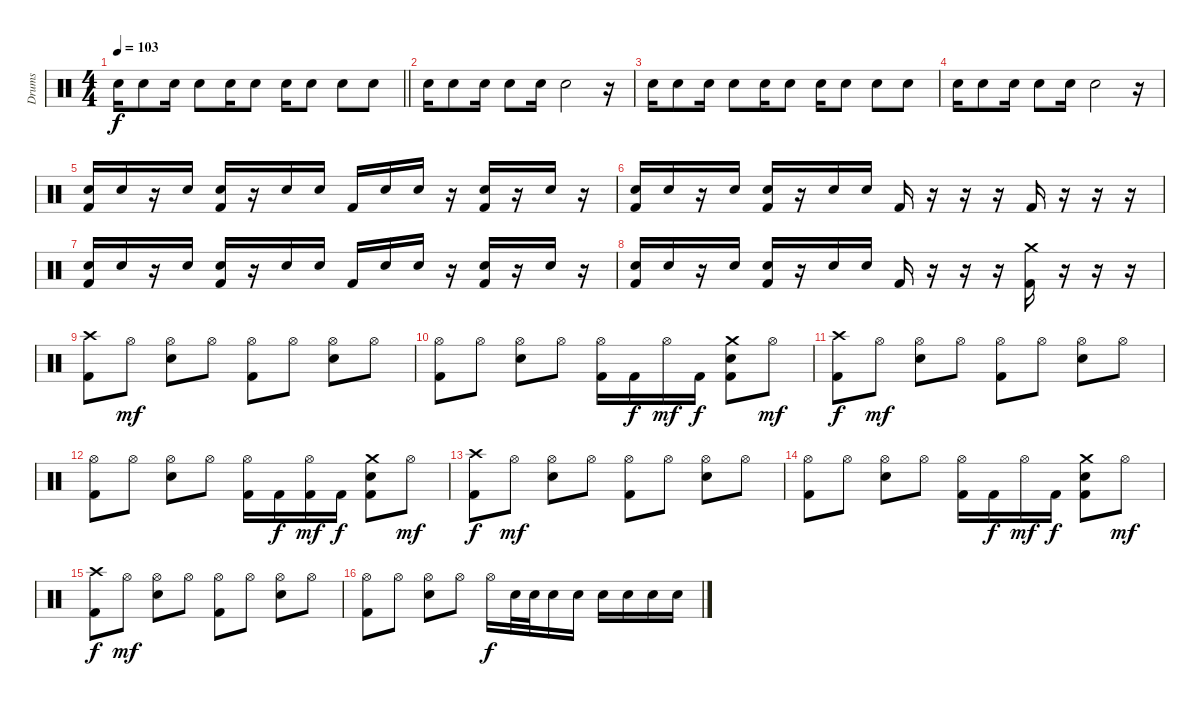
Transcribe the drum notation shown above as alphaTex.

\track ("Drums" "Drums") {instrument percussion}
\staff {score}
\articulation defaults
\ts (4 4)
\tempo 103
\clef neutral
\barLineRight lightlight
\ks c "Electric Snare (hit)".16{dy f} "Electric Snare (hit)".8 "Electric Snare (hit)".16 "Electric Snare (hit)".8 "Electric Snare (hit)".16 "Electric Snare (hit)".8 "Electric Snare (hit)".16 "Electric Snare (hit)".8 "Electric Snare (hit)".8 "Electric Snare (hit)".8
|
"Electric Snare (hit)".16 "Electric Snare (hit)".8 "Electric Snare (hit)".16 "Electric Snare (hit)".8 "Electric Snare (hit)".16 "Electric Snare (hit)".2 r.16 |
"Electric Snare (hit)".16 "Electric Snare (hit)".8 "Electric Snare (hit)".16 "Electric Snare (hit)".8 "Electric Snare (hit)".16 "Electric Snare (hit)".8 "Electric Snare (hit)".16 "Electric Snare (hit)".8 "Electric Snare (hit)".8 "Electric Snare (hit)".8 |
"Electric Snare (hit)".16 "Electric Snare (hit)".8 "Electric Snare (hit)".16 "Electric Snare (hit)".8 "Electric Snare (hit)".16 "Electric Snare (hit)".2 r.16 |
("Electric Snare (hit)" "Kick (hit) 2").16 "Electric Snare (hit)".16 r.16 "Electric Snare (hit)".16 ("Electric Snare (hit)" "Kick (hit) 2").16 r.16 "Electric Snare (hit)".16 "Electric Snare (hit)".16 "Kick (hit) 2".16 "Electric Snare (hit)".16 "Electric Snare (hit)".16 r.16 ("Electric Snare (hit)" "Kick (hit) 2").16 r.16 "Electric Snare (hit)".16 r.16 |
("Electric Snare (hit)" "Kick (hit) 2").16 "Electric Snare (hit)".16 r.16 "Electric Snare (hit)".16 ("Electric Snare (hit)" "Kick (hit) 2").16 r.16 "Electric Snare (hit)".16 "Electric Snare (hit)".16 "Kick (hit) 2".16 r.16 r.16 r.16 "Kick (hit) 2".16 r.16 r.16 r.16 |
("Electric Snare (hit)" "Kick (hit) 2").16 "Electric Snare (hit)".16 r.16 "Electric Snare (hit)".16 ("Electric Snare (hit)" "Kick (hit) 2").16 r.16 "Electric Snare (hit)".16 "Electric Snare (hit)".16 "Kick (hit) 2".16 "Electric Snare (hit)".16 "Electric Snare (hit)".16 r.16 ("Electric Snare (hit)" "Kick (hit) 2").16 r.16 "Electric Snare (hit)".16 r.16 |
("Electric Snare (hit)" "Kick (hit) 2").16 "Electric Snare (hit)".16 r.16 "Electric Snare (hit)".16 ("Electric Snare (hit)" "Kick (hit) 2").16 r.16 "Electric Snare (hit)".16 "Electric Snare (hit)".16 "Kick (hit) 2".16 r.16 r.16 r.16 ("Crash medium (hit)" "Kick (hit) 2").16 r.16 r.16 r.16 |
("Crash high (hit)" "Kick (hit) 2").8 "Hi-Hat (open)".8{dy mf} ("Hi-Hat (open)" "Electric Snare (hit)").8 "Hi-Hat (open)".8 ("Hi-Hat (open)" "Kick (hit) 2").8 "Hi-Hat (open)".8 ("Hi-Hat (open)" "Electric Snare (hit)").8 "Hi-Hat (open)".8 |
("Hi-Hat (open)" "Kick (hit) 2").8 "Hi-Hat (open)".8 ("Hi-Hat (open)" "Electric Snare (hit)").8 "Hi-Hat (open)".8 ("Hi-Hat (open)" "Kick (hit) 2").16 "Kick (hit) 2".16{dy f} "Hi-Hat (open)".16{dy mf} "Kick (hit) 2".16{dy f} ("Crash medium (hit)" "Electric Snare (hit)" "Kick (hit) 2").8 "Hi-Hat (open)".8{dy mf} |
("Crash high (hit)" "Kick (hit) 2").8{dy f} "Hi-Hat (open)".8{dy mf} ("Hi-Hat (open)" "Electric Snare (hit)").8 "Hi-Hat (open)".8 ("Hi-Hat (open)" "Kick (hit) 2").8 "Hi-Hat (open)".8 ("Hi-Hat (open)" "Electric Snare (hit)").8 "Hi-Hat (open)".8 |
("Hi-Hat (open)" "Kick (hit) 2").8 "Hi-Hat (open)".8 ("Hi-Hat (open)" "Electric Snare (hit)").8 "Hi-Hat (open)".8 ("Hi-Hat (open)" "Kick (hit) 2").16 "Kick (hit) 2".16{dy f} ("Hi-Hat (open)" "Kick (hit) 2").16{dy mf} "Kick (hit) 2".16{dy f} ("Crash medium (hit)" "Electric Snare (hit)" "Kick (hit) 2").8 "Hi-Hat (open)".8{dy mf} |
("Crash high (hit)" "Kick (hit) 2").8{dy f} "Hi-Hat (open)".8{dy mf} ("Hi-Hat (open)" "Electric Snare (hit)").8 "Hi-Hat (open)".8 ("Hi-Hat (open)" "Kick (hit) 2").8 "Hi-Hat (open)".8 ("Hi-Hat (open)" "Electric Snare (hit)").8 "Hi-Hat (open)".8 |
("Hi-Hat (open)" "Kick (hit) 2").8 "Hi-Hat (open)".8 ("Hi-Hat (open)" "Electric Snare (hit)").8 "Hi-Hat (open)".8 ("Hi-Hat (open)" "Kick (hit) 2").16 "Kick (hit) 2".16{dy f} "Hi-Hat (open)".16{dy mf} "Kick (hit) 2".16{dy f} ("Crash medium (hit)" "Electric Snare (hit)" "Kick (hit) 2").8 "Hi-Hat (open)".8{dy mf} |
("Crash high (hit)" "Kick (hit) 2").8{dy f} "Hi-Hat (open)".8{dy mf} ("Hi-Hat (open)" "Electric Snare (hit)").8 "Hi-Hat (open)".8 ("Hi-Hat (open)" "Kick (hit) 2").8 "Hi-Hat (open)".8 ("Hi-Hat (open)" "Electric Snare (hit)").8 "Hi-Hat (open)".8 |
("Hi-Hat (open)" "Kick (hit) 2").8 "Hi-Hat (open)".8 ("Hi-Hat (open)" "Electric Snare (hit)").8 "Hi-Hat (open)".8 "Hi-Hat (open)".16{dy f} "Electric Snare (hit)".32 "Electric Snare (hit)".32 "Electric Snare (hit)".16 "Electric Snare (hit)".16 "Electric Snare (hit)".16 "Electric Snare (hit)".16 "Electric Snare (hit)".16 "Electric Snare (hit)".16
